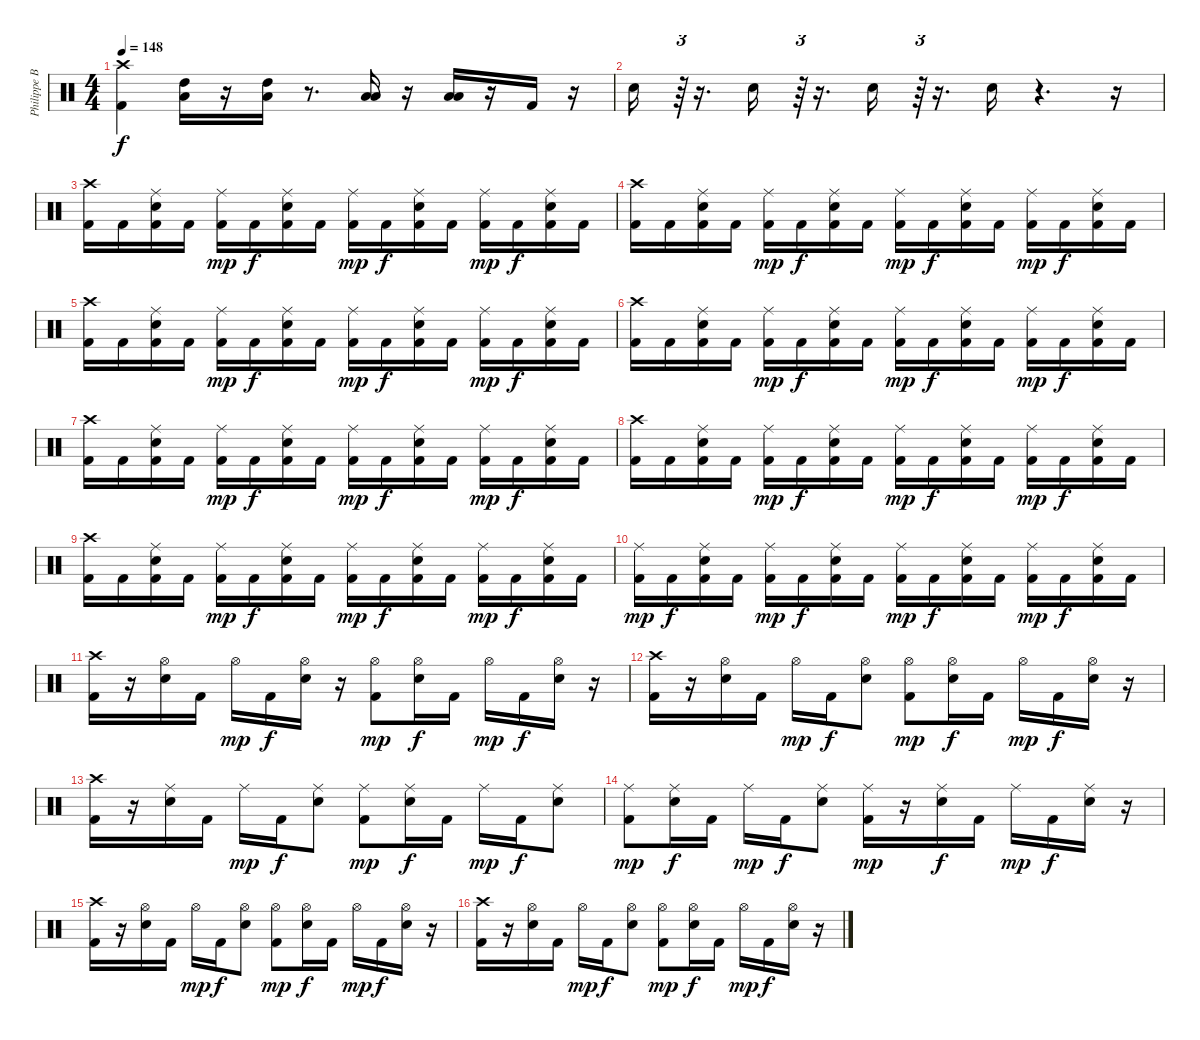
\track ("Philippe Borda" "Philippe B") {instrument percussion}
\staff {score}
\articulation defaults
\ts (4 4)
\tempo 148
\clef neutral
\ks c
("Crash high (hit)" "Kick (hit) 2").4{dy f} ("Low Tom (hit)" "High Tom (hit)").16 r.16 ("Low Tom (hit)" "High Tom (hit)").16 r.8{d} ("Low Floor Tom (hit)" "Low Tom (hit)").16 r.16 ("Low Floor Tom (hit)" "Low Tom (hit)").16 r.16 "Kick (hit) 2".16 r.16 |
"Snare (hit) 2".16 r.64{tu (3 2)} r.16{d} "Snare (hit) 2".16 r.64{tu (3 2)} r.16{d} "Snare (hit) 2".16 r.64{tu (3 2)} r.16{d} "Snare (hit) 2".16 r.4{d} r.16 |
("Crash high (hit)" "Kick (hit) 2").16 "Kick (hit) 2".16 ("Kick (hit) 2" "Snare (hit) 2" "Ride (middle)").16 "Kick (hit) 2".16 ("Kick (hit) 2" "Ride (middle)").16{dy mp} "Kick (hit) 2".16{dy f} ("Kick (hit) 2" "Ride (middle)" "Snare (hit) 2").16 "Kick (hit) 2".16 ("Kick (hit) 2" "Ride (middle)").16{dy mp} "Kick (hit) 2".16{dy f} ("Kick (hit) 2" "Ride (middle)" "Snare (hit) 2").16 "Kick (hit) 2".16 ("Kick (hit) 2" "Ride (middle)").16{dy mp} "Kick (hit) 2".16{dy f} ("Kick (hit) 2" "Ride (middle)" "Snare (hit) 2").16 "Kick (hit) 2".16 |
("Crash high (hit)" "Kick (hit) 2").16 "Kick (hit) 2".16 ("Kick (hit) 2" "Snare (hit) 2" "Ride (middle)").16 "Kick (hit) 2".16 ("Kick (hit) 2" "Ride (middle)").16{dy mp} "Kick (hit) 2".16{dy f} ("Kick (hit) 2" "Snare (hit) 2" "Ride (middle)").16 "Kick (hit) 2".16 ("Kick (hit) 2" "Ride (middle)").16{dy mp} "Kick (hit) 2".16{dy f} ("Kick (hit) 2" "Snare (hit) 2" "Ride (middle)").16 "Kick (hit) 2".16 ("Kick (hit) 2" "Ride (middle)").16{dy mp} "Kick (hit) 2".16{dy f} ("Kick (hit) 2" "Snare (hit) 2" "Ride (middle)").16 "Kick (hit) 2".16 |
("Crash high (hit)" "Kick (hit) 2").16 "Kick (hit) 2".16 ("Kick (hit) 2" "Snare (hit) 2" "Ride (middle)").16 "Kick (hit) 2".16 ("Kick (hit) 2" "Ride (middle)").16{dy mp} "Kick (hit) 2".16{dy f} ("Kick (hit) 2" "Snare (hit) 2" "Ride (middle)").16 "Kick (hit) 2".16 ("Kick (hit) 2" "Ride (middle)").16{dy mp} "Kick (hit) 2".16{dy f} ("Kick (hit) 2" "Snare (hit) 2" "Ride (middle)").16 "Kick (hit) 2".16 ("Kick (hit) 2" "Ride (middle)").16{dy mp} "Kick (hit) 2".16{dy f} ("Kick (hit) 2" "Snare (hit) 2" "Ride (middle)").16 "Kick (hit) 2".16 |
("Crash high (hit)" "Kick (hit) 2").16 "Kick (hit) 2".16 ("Kick (hit) 2" "Snare (hit) 2" "Ride (middle)").16 "Kick (hit) 2".16 ("Kick (hit) 2" "Ride (middle)").16{dy mp} "Kick (hit) 2".16{dy f} ("Kick (hit) 2" "Snare (hit) 2" "Ride (middle)").16 "Kick (hit) 2".16 ("Kick (hit) 2" "Ride (middle)").16{dy mp} "Kick (hit) 2".16{dy f} ("Kick (hit) 2" "Snare (hit) 2" "Ride (middle)").16 "Kick (hit) 2".16 ("Kick (hit) 2" "Ride (middle)").16{dy mp} "Kick (hit) 2".16{dy f} ("Kick (hit) 2" "Snare (hit) 2" "Ride (middle)").16 "Kick (hit) 2".16 |
("Crash high (hit)" "Kick (hit) 2").16 "Kick (hit) 2".16 ("Kick (hit) 2" "Snare (hit) 2" "Ride (middle)").16 "Kick (hit) 2".16 ("Kick (hit) 2" "Ride (middle)").16{dy mp} "Kick (hit) 2".16{dy f} ("Kick (hit) 2" "Snare (hit) 2" "Ride (middle)").16 "Kick (hit) 2".16 ("Kick (hit) 2" "Ride (middle)").16{dy mp} "Kick (hit) 2".16{dy f} ("Kick (hit) 2" "Snare (hit) 2" "Ride (middle)").16 "Kick (hit) 2".16 ("Kick (hit) 2" "Ride (middle)").16{dy mp} "Kick (hit) 2".16{dy f} ("Kick (hit) 2" "Snare (hit) 2" "Ride (middle)").16 "Kick (hit) 2".16 |
("Crash high (hit)" "Kick (hit) 2").16 "Kick (hit) 2".16 ("Kick (hit) 2" "Snare (hit) 2" "Ride (middle)").16 "Kick (hit) 2".16 ("Kick (hit) 2" "Ride (middle)").16{dy mp} "Kick (hit) 2".16{dy f} ("Kick (hit) 2" "Snare (hit) 2" "Ride (middle)").16 "Kick (hit) 2".16 ("Kick (hit) 2" "Ride (middle)").16{dy mp} "Kick (hit) 2".16{dy f} ("Kick (hit) 2" "Snare (hit) 2" "Ride (middle)").16 "Kick (hit) 2".16 ("Kick (hit) 2" "Ride (middle)").16{dy mp} "Kick (hit) 2".16{dy f} ("Kick (hit) 2" "Snare (hit) 2" "Ride (middle)").16 "Kick (hit) 2".16 |
("Crash high (hit)" "Kick (hit) 2").16 "Kick (hit) 2".16 ("Kick (hit) 2" "Snare (hit) 2" "Ride (middle)").16 "Kick (hit) 2".16 ("Kick (hit) 2" "Ride (middle)").16{dy mp} "Kick (hit) 2".16{dy f} ("Kick (hit) 2" "Snare (hit) 2" "Ride (middle)").16 "Kick (hit) 2".16 ("Kick (hit) 2" "Ride (middle)").16{dy mp} "Kick (hit) 2".16{dy f} ("Kick (hit) 2" "Snare (hit) 2" "Ride (middle)").16 "Kick (hit) 2".16 ("Kick (hit) 2" "Ride (middle)").16{dy mp} "Kick (hit) 2".16{dy f} ("Kick (hit) 2" "Snare (hit) 2" "Ride (middle)").16 "Kick (hit) 2".16 |
("Kick (hit) 2" "Ride (middle)").16{dy mp} "Kick (hit) 2".16{dy f} ("Kick (hit) 2" "Snare (hit) 2" "Ride (middle)").16 "Kick (hit) 2".16 ("Kick (hit) 2" "Ride (middle)").16{dy mp} "Kick (hit) 2".16{dy f} ("Kick (hit) 2" "Snare (hit) 2" "Ride (middle)").16 "Kick (hit) 2".16 ("Kick (hit) 2" "Ride (middle)").16{dy mp} "Kick (hit) 2".16{dy f} ("Kick (hit) 2" "Snare (hit) 2" "Ride (middle)").16 "Kick (hit) 2".16 ("Kick (hit) 2" "Ride (middle)").16{dy mp} "Kick (hit) 2".16{dy f} ("Kick (hit) 2" "Snare (hit) 2" "Ride (middle)").16 "Kick (hit) 2".16 |
("Crash high (hit)" "Kick (hit) 2").16 r.16 ("Hi-Hat (open)" "Snare (hit) 2").16 "Kick (hit) 2".16 "Hi-Hat (open)".16{dy mp} "Kick (hit) 2".16{dy f} ("Snare (hit) 2" "Hi-Hat (open)").16 r.16 ("Hi-Hat (open)" "Kick (hit) 2").8{dy mp} ("Hi-Hat (open)" "Snare (hit) 2").16{dy f} "Kick (hit) 2".16 "Hi-Hat (open)".16{dy mp} "Kick (hit) 2".16{dy f} ("Hi-Hat (open)" "Snare (hit) 2").16 r.16 |
("Crash high (hit)" "Kick (hit) 2").16 r.16 ("Snare (hit) 2" "Hi-Hat (open)").16 "Kick (hit) 2".16 "Hi-Hat (open)".16{dy mp} "Kick (hit) 2".16{dy f} ("Snare (hit) 2" "Hi-Hat (open)").8 ("Kick (hit) 2" "Hi-Hat (open)").8{dy mp} ("Snare (hit) 2" "Hi-Hat (open)").16{dy f} "Kick (hit) 2".16 "Hi-Hat (open)".16{dy mp} "Kick (hit) 2".16{dy f} ("Snare (hit) 2" "Hi-Hat (open)").16 r.16 |
("Crash high (hit)" "Kick (hit) 2").16 r.16 ("Ride (middle)" "Snare (hit) 2").16 "Kick (hit) 2".16 "Ride (middle)".16{dy mp} "Kick (hit) 2".16{dy f} ("Ride (middle)" "Snare (hit) 2").8 ("Ride (middle)" "Kick (hit) 2").8{dy mp} ("Ride (middle)" "Snare (hit) 2").16{dy f} "Kick (hit) 2".16 "Ride (middle)".16{dy mp} "Kick (hit) 2".16{dy f} ("Ride (middle)" "Snare (hit) 2").8 |
("Kick (hit) 2" "Ride (middle)").8{dy mp} ("Ride (middle)" "Snare (hit) 2").16{dy f} "Kick (hit) 2".16 "Ride (middle)".16{dy mp} "Kick (hit) 2".16{dy f} ("Ride (middle)" "Snare (hit) 2").8 ("Kick (hit) 2" "Ride (middle)").16{dy mp} r.16 ("Ride (middle)" "Snare (hit) 2").16{dy f} "Kick (hit) 2".16 "Ride (middle)".16{dy mp} "Kick (hit) 2".16{dy f} ("Ride (middle)" "Snare (hit) 2").16 r.16 |
("Crash high (hit)" "Kick (hit) 2").16 r.16 ("Snare (hit) 2" "Hi-Hat (open)").16 "Kick (hit) 2".16 "Hi-Hat (open)".16{dy mp} "Kick (hit) 2".16{dy f} ("Snare (hit) 2" "Hi-Hat (open)").8 ("Kick (hit) 2" "Hi-Hat (open)").8{dy mp} ("Snare (hit) 2" "Hi-Hat (open)").16{dy f} "Kick (hit) 2".16 "Hi-Hat (open)".16{dy mp} "Kick (hit) 2".16{dy f} ("Snare (hit) 2" "Hi-Hat (open)").16 r.16 |
("Crash high (hit)" "Kick (hit) 2").16 r.16 ("Snare (hit) 2" "Hi-Hat (open)").16 "Kick (hit) 2".16 "Hi-Hat (open)".16{dy mp} "Kick (hit) 2".16{dy f} ("Snare (hit) 2" "Hi-Hat (open)").8 ("Kick (hit) 2" "Hi-Hat (open)").8{dy mp} ("Snare (hit) 2" "Hi-Hat (open)").16{dy f} "Kick (hit) 2".16 "Hi-Hat (open)".16{dy mp} "Kick (hit) 2".16{dy f} ("Snare (hit) 2" "Hi-Hat (open)").16 r.16
